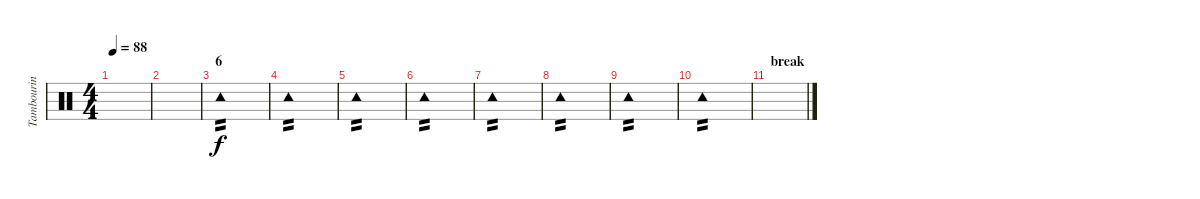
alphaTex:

\track ("Tambourin" "Tambourin") {instrument percussion}
\staff {score}
\articulation defaults
\ts (4 4)
\tempo 88
\clef neutral
\ks c
|
|
\section ("" "6")
"Tambourine (hit)".1{tp 2} |
"Tambourine (hit)".1{tp 2} |
"Tambourine (hit)".1{tp 2} |
"Tambourine (hit)".1{tp 2} |
"Tambourine (hit)".1{tp 2} |
"Tambourine (hit)".1{tp 2} |
"Tambourine (hit)".1{tp 2} |
"Tambourine (hit)".1{tp 2} |
\section ("" "break")
